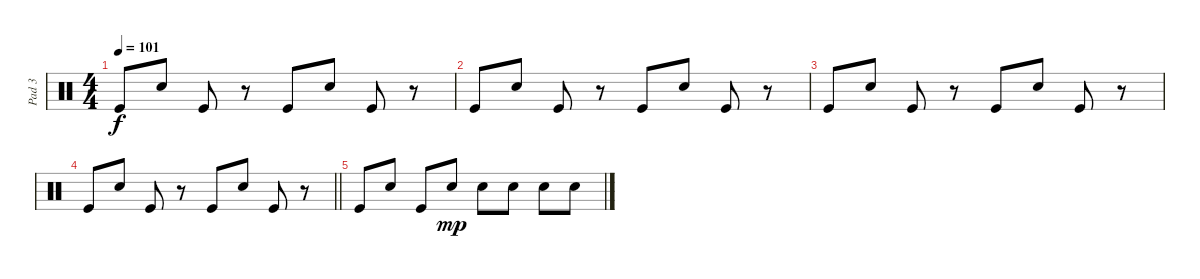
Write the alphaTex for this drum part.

\track ("Pad 3" "Pad 3") {instrument percussion}
\staff {score}
\articulation defaults
\ts (4 4)
\tempo 101
\clef neutral
\ks c "Kick (hit)".8{dy f} "Electric Snare (hit)".8 "Kick (hit)".8
r.8 "Kick (hit)".8 "Electric Snare (hit)".8 "Kick (hit)".8 r.8 |
"Kick (hit)".8 "Electric Snare (hit)".8 "Kick (hit)".8 r.8 "Kick (hit)".8 "Electric Snare (hit)".8 "Kick (hit)".8 r.8 |
"Kick (hit)".8 "Electric Snare (hit)".8 "Kick (hit)".8 r.8 "Kick (hit)".8 "Electric Snare (hit)".8 "Kick (hit)".8 r.8 |
\barLineRight lightlight "Kick (hit)".8 "Electric Snare (hit)".8 "Kick (hit)".8
r.8 "Kick (hit)".8 "Electric Snare (hit)".8 "Kick (hit)".8 r.8 |
"Kick (hit)".8 "Electric Snare (hit)".8 "Kick (hit)".8{volume 0} "Electric Snare (hit)".8{dy mp} "Electric Snare (hit)".8 "Electric Snare (hit)".8 "Electric Snare (hit)".8 "Electric Snare (hit)".8
